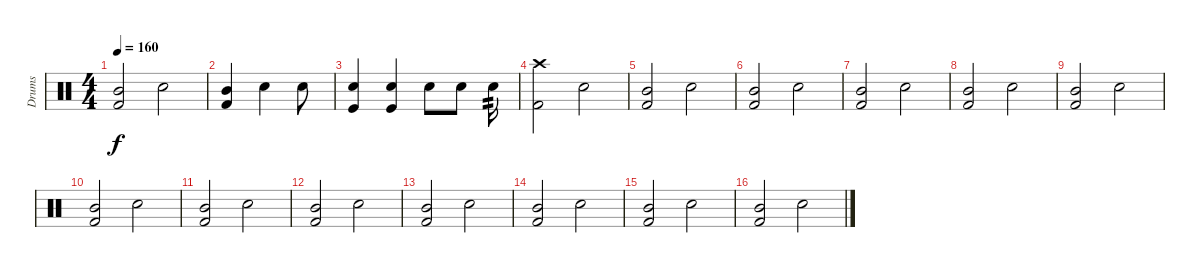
\track ("Drums" "Drums") {instrument percussion}
\staff {score}
\articulation defaults
\ts (4 4)
\tempo 160
\clef neutral
\ks c
("Mid Tom (hit)" "Kick (hit) 2").2{dy f} "Electric Snare (hit)".2 |
("Kick (hit) 2" "Mid Tom (hit)").4 "Electric Snare (hit)".4 "Electric Snare (hit)".8 |
("Kick (hit)" "Electric Snare (hit)").4 ("Kick (hit)" "Electric Snare (hit)").4 "Electric Snare (hit)".8 "Electric Snare (hit)".8 "Electric Snare (hit)".16{tp 2} |
("Kick (hit) 2" "Crash high (hit)").2 "Electric Snare (hit)".2 |
("Kick (hit) 2" "Mid Tom (hit)").2 "Electric Snare (hit)".2 |
("Kick (hit) 2" "Mid Tom (hit)").2 "Electric Snare (hit)".2 |
("Kick (hit) 2" "Mid Tom (hit)").2 "Electric Snare (hit)".2 |
("Kick (hit) 2" "Mid Tom (hit)").2 "Electric Snare (hit)".2 |
("Kick (hit) 2" "Mid Tom (hit)").2 "Electric Snare (hit)".2 |
("Kick (hit) 2" "Mid Tom (hit)").2 "Electric Snare (hit)".2 |
("Kick (hit) 2" "Mid Tom (hit)").2 "Electric Snare (hit)".2 |
("Mid Tom (hit)" "Kick (hit) 2").2 "Electric Snare (hit)".2 |
("Kick (hit) 2" "Mid Tom (hit)").2 "Electric Snare (hit)".2 |
("Kick (hit) 2" "Mid Tom (hit)").2 "Electric Snare (hit)".2 |
("Kick (hit) 2" "Mid Tom (hit)").2 "Electric Snare (hit)".2 |
("Kick (hit) 2" "Mid Tom (hit)").2 "Electric Snare (hit)".2
